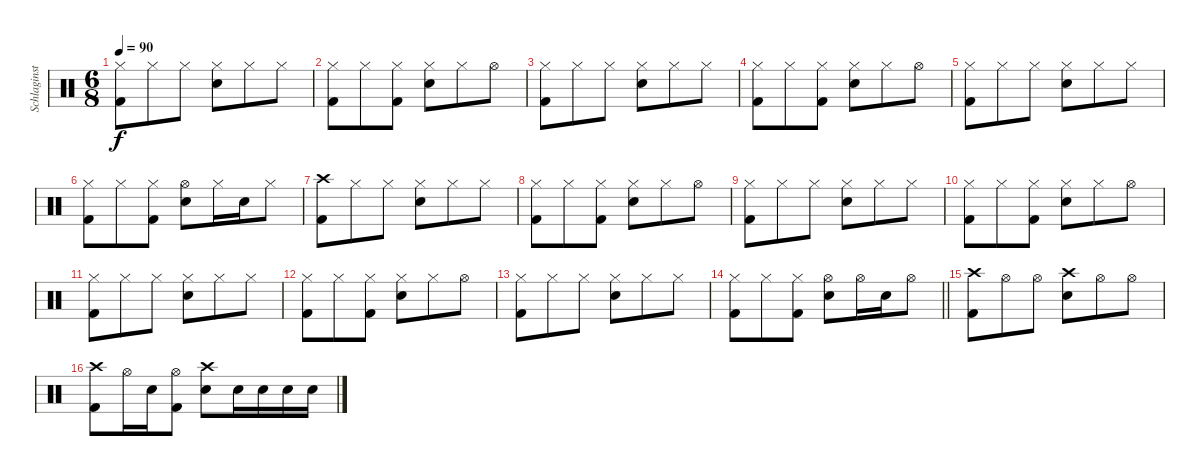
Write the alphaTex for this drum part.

\track ("Schlaginstrumente - Auswahl" "Schlaginst") {instrument percussion}
\staff {score}
\articulation defaults
\ts (6 8)
\tempo 90
\clef neutral
\ks c
("Hi-Hat (closed)" "Kick (hit) 2").8{dy f} "Hi-Hat (closed)".8 "Hi-Hat (closed)".8 ("Hi-Hat (closed)" "Snare (hit) 2").8 "Hi-Hat (closed)".8 "Hi-Hat (closed)".8 |
("Hi-Hat (closed)" "Kick (hit) 2").8 "Hi-Hat (closed)".8 ("Hi-Hat (closed)" "Kick (hit) 2").8 ("Hi-Hat (closed)" "Snare (hit) 2").8 "Hi-Hat (closed)".8 "Hi-Hat (open)".8 |
("Hi-Hat (closed)" "Kick (hit) 2").8 "Hi-Hat (closed)".8 "Hi-Hat (closed)".8 ("Hi-Hat (closed)" "Snare (hit) 2").8 "Hi-Hat (closed)".8 "Hi-Hat (closed)".8 |
("Hi-Hat (closed)" "Kick (hit) 2").8 "Hi-Hat (closed)".8 ("Hi-Hat (closed)" "Kick (hit) 2").8 ("Hi-Hat (closed)" "Snare (hit) 2").8 "Hi-Hat (closed)".8 "Hi-Hat (open)".8 |
("Hi-Hat (closed)" "Kick (hit) 2").8 "Hi-Hat (closed)".8 "Hi-Hat (closed)".8 ("Hi-Hat (closed)" "Snare (hit) 2").8 "Hi-Hat (closed)".8 "Hi-Hat (closed)".8 |
("Hi-Hat (closed)" "Kick (hit) 2").8 "Hi-Hat (closed)".8 ("Hi-Hat (closed)" "Kick (hit) 2").8 ("Hi-Hat (open)" "Snare (hit) 2").8 "Hi-Hat (closed)".16 "Snare (hit) 2".16 "Hi-Hat (closed)".8 |
("Crash high (hit)" "Kick (hit) 2").8 "Hi-Hat (closed)".8 "Hi-Hat (closed)".8 ("Hi-Hat (closed)" "Snare (hit) 2").8 "Hi-Hat (closed)".8 "Hi-Hat (closed)".8 |
("Hi-Hat (closed)" "Kick (hit) 2").8 "Hi-Hat (closed)".8 ("Hi-Hat (closed)" "Kick (hit) 2").8 ("Hi-Hat (closed)" "Snare (hit) 2").8 "Hi-Hat (closed)".8 "Hi-Hat (open)".8 |
("Hi-Hat (closed)" "Kick (hit) 2").8 "Hi-Hat (closed)".8 "Hi-Hat (closed)".8 ("Hi-Hat (closed)" "Snare (hit) 2").8 "Hi-Hat (closed)".8 "Hi-Hat (closed)".8 |
("Hi-Hat (closed)" "Kick (hit) 2").8 "Hi-Hat (closed)".8 ("Hi-Hat (closed)" "Kick (hit) 2").8 ("Hi-Hat (closed)" "Snare (hit) 2").8 "Hi-Hat (closed)".8 "Hi-Hat (open)".8 |
("Hi-Hat (closed)" "Kick (hit) 2").8 "Hi-Hat (closed)".8 "Hi-Hat (closed)".8 ("Hi-Hat (closed)" "Snare (hit) 2").8 "Hi-Hat (closed)".8 "Hi-Hat (closed)".8 |
("Hi-Hat (closed)" "Kick (hit) 2").8 "Hi-Hat (closed)".8 ("Hi-Hat (closed)" "Kick (hit) 2").8 ("Hi-Hat (closed)" "Snare (hit) 2").8 "Hi-Hat (closed)".8 "Hi-Hat (open)".8 |
("Hi-Hat (closed)" "Kick (hit) 2").8 "Hi-Hat (closed)".8 "Hi-Hat (closed)".8 ("Hi-Hat (closed)" "Snare (hit) 2").8 "Hi-Hat (closed)".8 "Hi-Hat (closed)".8 |
\barLineRight lightlight
("Hi-Hat (closed)" "Kick (hit) 2").8 "Hi-Hat (closed)".8 ("Hi-Hat (closed)" "Kick (hit) 2").8 ("Hi-Hat (open)" "Snare (hit) 2").8 "Hi-Hat (open)".16 "Snare (hit) 2".16 "Hi-Hat (open)".8 |
("Crash high (hit)" "Kick (hit) 2").8 "Hi-Hat (open)".8 "Hi-Hat (open)".8 ("Crash high (hit)" "Snare (hit) 2").8 "Hi-Hat (open)".8 "Hi-Hat (open)".8 |
("Crash high (hit)" "Kick (hit) 2").8 "Hi-Hat (open)".16 "Snare (hit) 2".16 ("Hi-Hat (open)" "Kick (hit) 2").8 ("Crash high (hit)" "Snare (hit) 2").8 "Snare (hit) 2".16 "Snare (hit) 2".16 "Snare (hit) 2".16 "Snare (hit) 2".16
